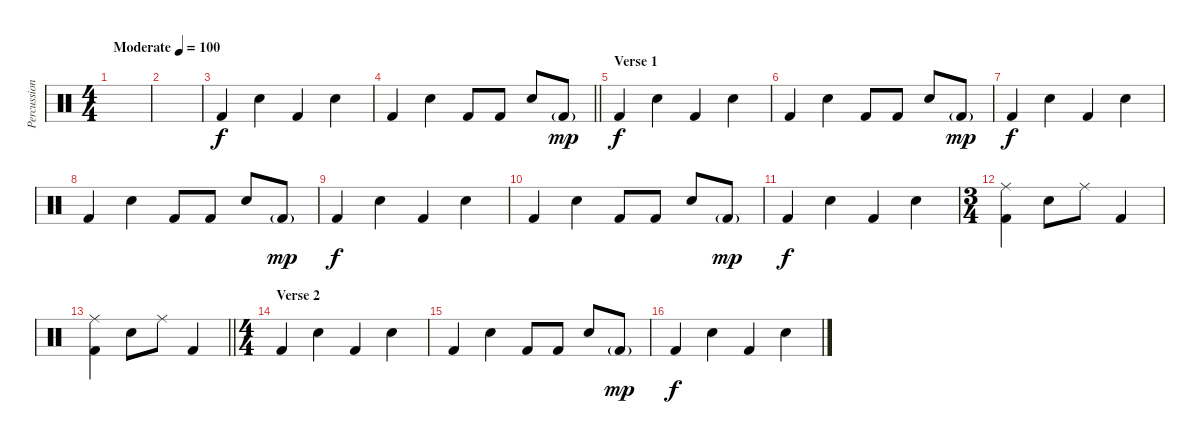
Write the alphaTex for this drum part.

\track ("Percussion" "Percussion") {instrument percussion}
\staff {score}
\articulation defaults
\ts (4 4)
\tempo (100 "Moderate")
\clef neutral
\ks c
|
|
"Kick (hit) 2".4 "Snare (hit) 2".4 "Kick (hit) 2".4 "Snare (hit) 2".4 |
\barLineRight lightlight "Kick (hit) 2".4 "Snare (hit) 2".4 "Kick (hit) 2".8 "Kick (hit) 2".8 "Snare (hit) 2".8 "Kick (hit) 2"{g}.8{dy mp}
|
\section ("" "Verse 1")
"Kick (hit) 2".4{dy f} "Snare (hit) 2".4 "Kick (hit) 2".4 "Snare (hit) 2".4 |
"Kick (hit) 2".4 "Snare (hit) 2".4 "Kick (hit) 2".8 "Kick (hit) 2".8 "Snare (hit) 2".8 "Kick (hit) 2"{g}.8{dy mp} |
"Kick (hit) 2".4{dy f} "Snare (hit) 2".4 "Kick (hit) 2".4 "Snare (hit) 2".4 |
"Kick (hit) 2".4 "Snare (hit) 2".4 "Kick (hit) 2".8 "Kick (hit) 2".8 "Snare (hit) 2".8 "Kick (hit) 2"{g}.8{dy mp} |
"Kick (hit) 2".4{dy f} "Snare (hit) 2".4 "Kick (hit) 2".4 "Snare (hit) 2".4 |
"Kick (hit) 2".4 "Snare (hit) 2".4 "Kick (hit) 2".8 "Kick (hit) 2".8 "Snare (hit) 2".8 "Kick (hit) 2"{g}.8{dy mp} |
"Kick (hit) 2".4{dy f} "Snare (hit) 2".4 "Kick (hit) 2".4 "Snare (hit) 2".4 |
\ts (3 4)
("Ride (middle)" "Kick (hit) 2").4 "Snare (hit) 2".8 "Ride (middle)".8 "Kick (hit) 2".4 |
\barLineRight lightlight
("Ride (middle)" "Kick (hit) 2").4 "Snare (hit) 2".8 "Ride (middle)".8 "Kick (hit) 2".4 |
\ts (4 4)
\section ("" "Verse 2")
"Kick (hit) 2".4 "Snare (hit) 2".4 "Kick (hit) 2".4 "Snare (hit) 2".4 |
"Kick (hit) 2".4 "Snare (hit) 2".4 "Kick (hit) 2".8 "Kick (hit) 2".8 "Snare (hit) 2".8 "Kick (hit) 2"{g}.8{dy mp} |
"Kick (hit) 2".4{dy f} "Snare (hit) 2".4 "Kick (hit) 2".4 "Snare (hit) 2".4
